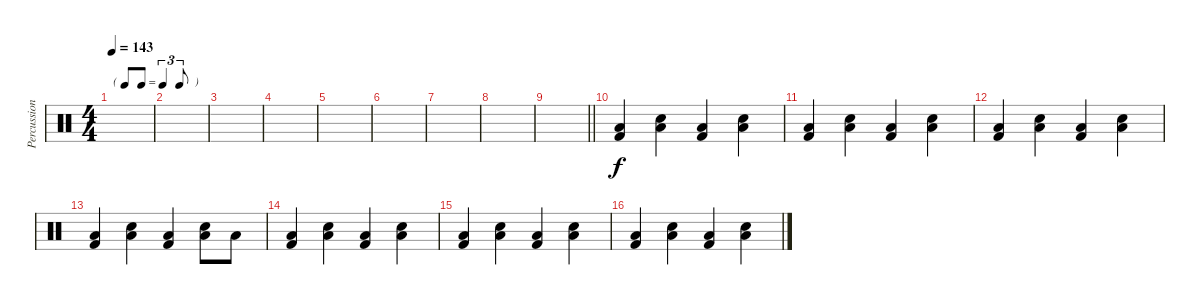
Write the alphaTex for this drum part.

\track ("Percussion" "Percussion") {instrument percussion}
\staff {score}
\articulation defaults
\ts (4 4)
\tf triplet8th
\tempo 143
\clef neutral
\ks c
|
|
|
|
|
|
|
|
\barLineRight lightlight
|
\section ("" "")
("Low Floor Tom (hit)" "Kick (hit) 2").4 ("Low Floor Tom (hit)" "Electric Snare (hit)").4 ("Low Floor Tom (hit)" "Kick (hit) 2").4 ("Low Floor Tom (hit)" "Electric Snare (hit)").4 |
("Low Floor Tom (hit)" "Kick (hit) 2").4 ("Low Floor Tom (hit)" "Electric Snare (hit)").4 ("Low Floor Tom (hit)" "Kick (hit) 2").4 ("Low Floor Tom (hit)" "Electric Snare (hit)").4 |
("Low Floor Tom (hit)" "Kick (hit) 2").4 ("Low Floor Tom (hit)" "Electric Snare (hit)").4 ("Low Floor Tom (hit)" "Kick (hit) 2").4 ("Low Floor Tom (hit)" "Electric Snare (hit)").4 |
("Low Floor Tom (hit)" "Kick (hit) 2").4 ("Low Floor Tom (hit)" "Electric Snare (hit)").4 ("Low Floor Tom (hit)" "Kick (hit) 2").4 ("Low Floor Tom (hit)" "Electric Snare (hit)").8 "Low Tom (hit)".8 |
("Low Floor Tom (hit)" "Kick (hit) 2").4 ("Low Floor Tom (hit)" "Electric Snare (hit)").4 ("Low Floor Tom (hit)" "Kick (hit) 2").4 ("Low Floor Tom (hit)" "Electric Snare (hit)").4 |
("Low Floor Tom (hit)" "Kick (hit) 2").4 ("Low Floor Tom (hit)" "Electric Snare (hit)").4 ("Low Floor Tom (hit)" "Kick (hit) 2").4 ("Low Floor Tom (hit)" "Electric Snare (hit)").4 |
("Low Floor Tom (hit)" "Kick (hit) 2").4 ("Low Floor Tom (hit)" "Electric Snare (hit)").4 ("Low Floor Tom (hit)" "Kick (hit) 2").4 ("Low Floor Tom (hit)" "Electric Snare (hit)").4
